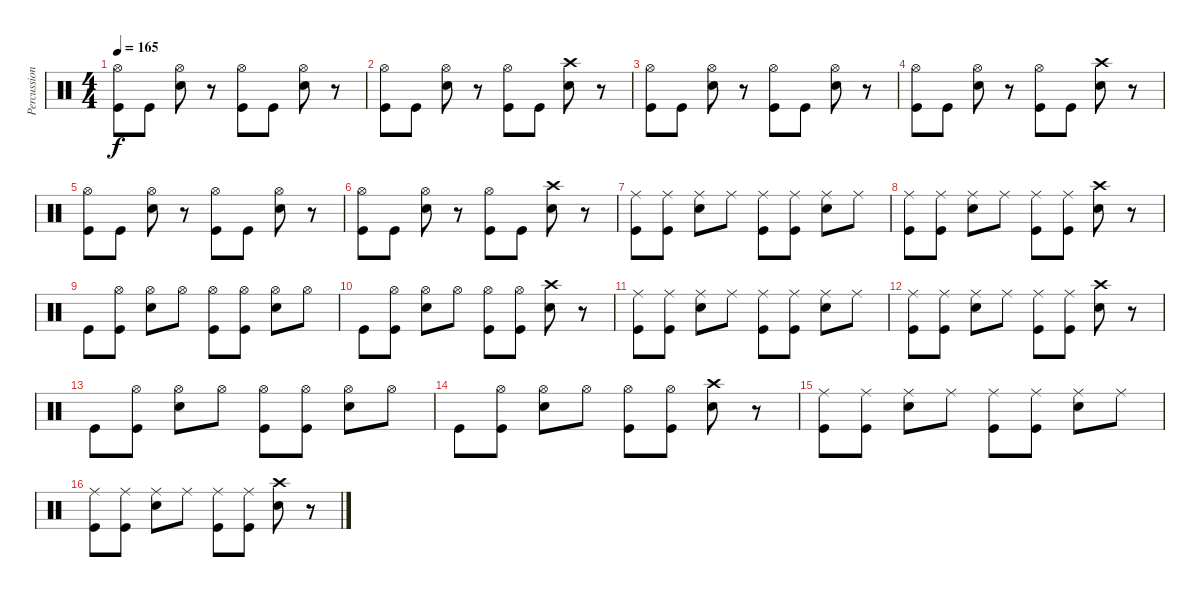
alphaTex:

\track ("Percussion" "Percussion") {instrument percussion}
\staff {score}
\articulation defaults
\ts (4 4)
\tempo 165
\clef neutral
\ks c
("Hi-Hat (open)" "Kick (hit)").8{dy f} "Kick (hit)".8 ("Hi-Hat (open)" "Snare (hit) 2").8 r.8 ("Hi-Hat (open)" "Kick (hit)").8 "Kick (hit)".8 ("Hi-Hat (open)" "Snare (hit) 2").8 r.8 |
("Hi-Hat (open)" "Kick (hit)").8 "Kick (hit)".8 ("Hi-Hat (open)" "Snare (hit) 2").8 r.8 ("Hi-Hat (open)" "Kick (hit)").8 "Kick (hit)".8 ("Crash high (hit)" "Snare (hit) 2").8 r.8 |
("Hi-Hat (open)" "Kick (hit)").8 "Kick (hit)".8 ("Hi-Hat (open)" "Snare (hit) 2").8 r.8 ("Hi-Hat (open)" "Kick (hit)").8 "Kick (hit)".8 ("Hi-Hat (open)" "Snare (hit) 2").8 r.8 |
("Hi-Hat (open)" "Kick (hit)").8 "Kick (hit)".8 ("Hi-Hat (open)" "Snare (hit) 2").8 r.8 ("Hi-Hat (open)" "Kick (hit)").8 "Kick (hit)".8 ("Crash high (hit)" "Snare (hit) 2").8 r.8 |
("Hi-Hat (open)" "Kick (hit)").8 "Kick (hit)".8 ("Hi-Hat (open)" "Snare (hit) 2").8 r.8 ("Hi-Hat (open)" "Kick (hit)").8 "Kick (hit)".8 ("Hi-Hat (open)" "Snare (hit) 2").8 r.8 |
("Hi-Hat (open)" "Kick (hit)").8 "Kick (hit)".8 ("Hi-Hat (open)" "Snare (hit) 2").8 r.8 ("Hi-Hat (open)" "Kick (hit)").8 "Kick (hit)".8 ("Crash high (hit)" "Snare (hit) 2").8 r.8 |
("Ride (middle)" "Kick (hit)").8 ("Ride (middle)" "Kick (hit)").8 ("Ride (middle)" "Snare (hit) 2").8 "Ride (middle)".8 ("Ride (middle)" "Kick (hit)").8 ("Ride (middle)" "Kick (hit)").8 ("Ride (middle)" "Snare (hit) 2").8 "Ride (middle)".8 |
("Ride (middle)" "Kick (hit)").8 ("Ride (middle)" "Kick (hit)").8 ("Ride (middle)" "Snare (hit) 2").8 "Ride (middle)".8 ("Ride (middle)" "Kick (hit)").8 ("Ride (middle)" "Kick (hit)").8 ("Crash high (hit)" "Snare (hit) 2").8 r.8 |
"Kick (hit)".8 ("Hi-Hat (open)" "Kick (hit)").8 ("Hi-Hat (open)" "Snare (hit) 2").8 "Hi-Hat (open)".8 ("Hi-Hat (open)" "Kick (hit)").8 ("Hi-Hat (open)" "Kick (hit)").8 ("Hi-Hat (open)" "Snare (hit) 2").8 "Hi-Hat (open)".8 |
"Kick (hit)".8 ("Hi-Hat (open)" "Kick (hit)").8 ("Hi-Hat (open)" "Snare (hit) 2").8 "Hi-Hat (open)".8 ("Hi-Hat (open)" "Kick (hit)").8 ("Hi-Hat (open)" "Kick (hit)").8 ("Crash high (hit)" "Snare (hit) 2").8 r.8 |
("Ride (middle)" "Kick (hit)").8 ("Ride (middle)" "Kick (hit)").8 ("Ride (middle)" "Snare (hit) 2").8 "Ride (middle)".8 ("Ride (middle)" "Kick (hit)").8 ("Ride (middle)" "Kick (hit)").8 ("Ride (middle)" "Snare (hit) 2").8 "Ride (middle)".8 |
("Ride (middle)" "Kick (hit)").8 ("Ride (middle)" "Kick (hit)").8 ("Ride (middle)" "Snare (hit) 2").8 "Ride (middle)".8 ("Ride (middle)" "Kick (hit)").8 ("Ride (middle)" "Kick (hit)").8 ("Crash high (hit)" "Snare (hit) 2").8 r.8 |
"Kick (hit)".8 ("Hi-Hat (open)" "Kick (hit)").8 ("Hi-Hat (open)" "Snare (hit) 2").8 "Hi-Hat (open)".8 ("Hi-Hat (open)" "Kick (hit)").8 ("Hi-Hat (open)" "Kick (hit)").8 ("Hi-Hat (open)" "Snare (hit) 2").8 "Hi-Hat (open)".8 |
"Kick (hit)".8 ("Hi-Hat (open)" "Kick (hit)").8 ("Hi-Hat (open)" "Snare (hit) 2").8 "Hi-Hat (open)".8 ("Hi-Hat (open)" "Kick (hit)").8 ("Hi-Hat (open)" "Kick (hit)").8 ("Crash high (hit)" "Snare (hit) 2").8 r.8 |
("Ride (middle)" "Kick (hit)").8 ("Ride (middle)" "Kick (hit)").8 ("Ride (middle)" "Snare (hit) 2").8 "Ride (middle)".8 ("Ride (middle)" "Kick (hit)").8 ("Ride (middle)" "Kick (hit)").8 ("Ride (middle)" "Snare (hit) 2").8 "Ride (middle)".8 |
("Ride (middle)" "Kick (hit)").8 ("Ride (middle)" "Kick (hit)").8 ("Ride (middle)" "Snare (hit) 2").8 "Ride (middle)".8 ("Ride (middle)" "Kick (hit)").8 ("Ride (middle)" "Kick (hit)").8 ("Crash high (hit)" "Snare (hit) 2").8 r.8
